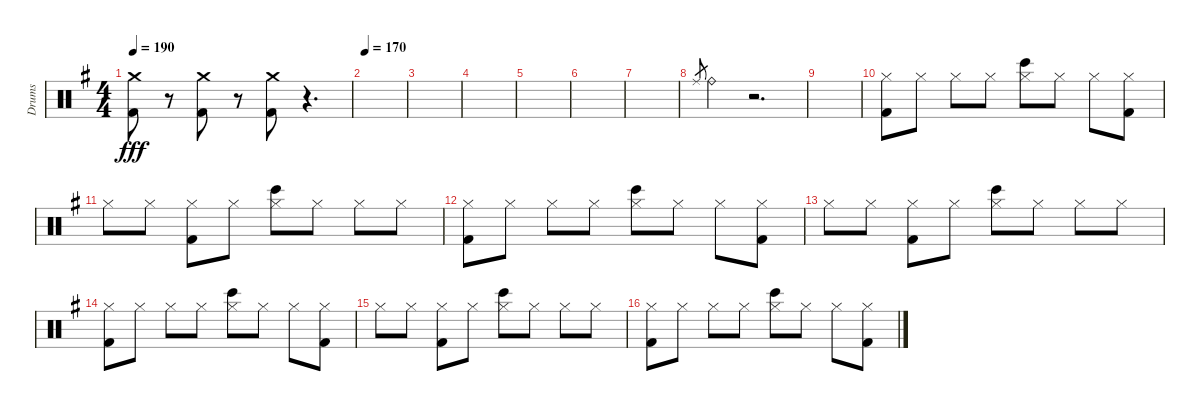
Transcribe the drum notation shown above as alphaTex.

\track ("Drums" "Drums") {instrument percussion}
\staff {score}
\articulation defaults
\ts (4 4)
\tempo 190
\clef neutral
\ks eminor
("Crash medium (hit)" "Kick (hit) 2").8{dy fff volume 16} r.8{volume 0} ("Crash medium (hit)" "Kick (hit) 2").8{volume 16} r.8{volume 0} ("Crash medium (hit)" "Kick (hit) 2").8{volume 16} r.4{d volume 0} |
\tempo 170
|
|
|
|
|
|
"Ride (middle)".8{gr} "Ride (bell)".4 r.2{d} |
|
("Hi-Hat (closed)" "Kick (hit) 2").8 "Hi-Hat (closed)".8 "Hi-Hat (closed)".8 "Hi-Hat (closed)".8 ("Hi-Hat (closed)" "Bongo High (hit)").8 "Hi-Hat (closed)".8 "Hi-Hat (closed)".8 ("Hi-Hat (closed)" "Kick (hit) 2").8 |
"Hi-Hat (closed)".8 "Hi-Hat (closed)".8 ("Hi-Hat (closed)" "Kick (hit) 2").8 "Hi-Hat (closed)".8 ("Hi-Hat (closed)" "Bongo High (hit)").8 "Hi-Hat (closed)".8 "Hi-Hat (closed)".8 "Hi-Hat (closed)".8 |
("Hi-Hat (closed)" "Kick (hit) 2").8 "Hi-Hat (closed)".8 "Hi-Hat (closed)".8 "Hi-Hat (closed)".8 ("Hi-Hat (closed)" "Bongo High (hit)").8 "Hi-Hat (closed)".8 "Hi-Hat (closed)".8 ("Hi-Hat (closed)" "Kick (hit) 2").8 |
"Hi-Hat (closed)".8 "Hi-Hat (closed)".8 ("Hi-Hat (closed)" "Kick (hit) 2").8 "Hi-Hat (closed)".8 ("Hi-Hat (closed)" "Bongo High (hit)").8 "Hi-Hat (closed)".8 "Hi-Hat (closed)".8 "Hi-Hat (closed)".8 |
("Hi-Hat (closed)" "Kick (hit) 2").8 "Hi-Hat (closed)".8 "Hi-Hat (closed)".8 "Hi-Hat (closed)".8 ("Hi-Hat (closed)" "Bongo High (hit)").8 "Hi-Hat (closed)".8 "Hi-Hat (closed)".8 ("Hi-Hat (closed)" "Kick (hit) 2").8 |
"Hi-Hat (closed)".8 "Hi-Hat (closed)".8 ("Hi-Hat (closed)" "Kick (hit) 2").8 "Hi-Hat (closed)".8 ("Hi-Hat (closed)" "Bongo High (hit)").8 "Hi-Hat (closed)".8 "Hi-Hat (closed)".8 "Hi-Hat (closed)".8 |
("Hi-Hat (closed)" "Kick (hit) 2").8 "Hi-Hat (closed)".8 "Hi-Hat (closed)".8 "Hi-Hat (closed)".8 ("Hi-Hat (closed)" "Bongo High (hit)").8 "Hi-Hat (closed)".8 "Hi-Hat (closed)".8 ("Hi-Hat (closed)" "Kick (hit) 2").8
